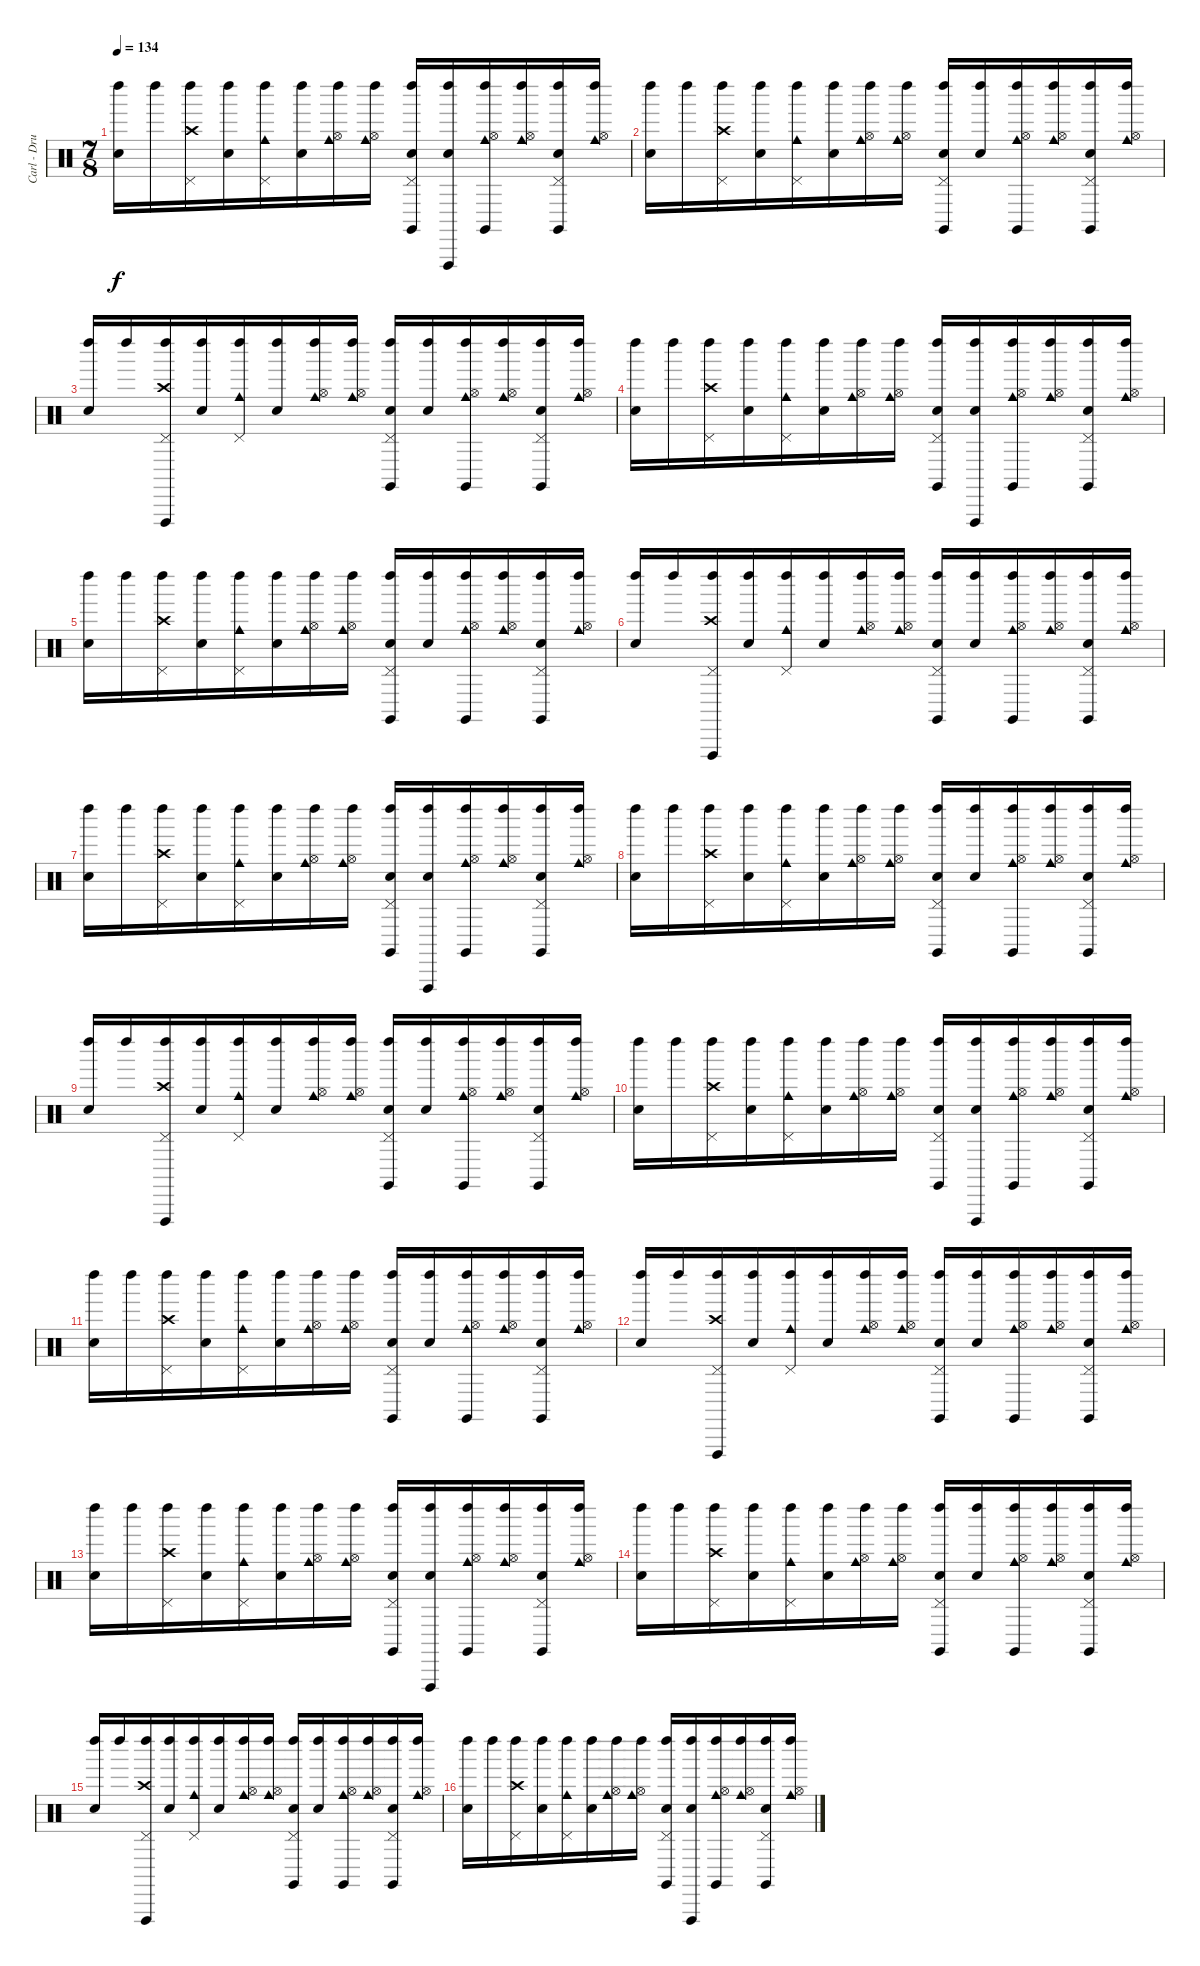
\track ("Carl - Drums" "Carl - Dru") {instrument percussion}
\staff {score}
\articulation defaults
\ts (7 8)
\tempo 134
\clef neutral
\ks c
("Left Maraca (hit)" "Electric Snare (hit)").16{dy f} "Left Maraca (hit)".16 ("Left Maraca (hit)" "Crash high (hit)" "Pedal Hi-Hat (hit)").16 ("Left Maraca (hit)" "Electric Snare (hit)").16 ("Left Maraca (hit)" "Pedal Hi-Hat (hit)" "Cowbell medium (hit)").16 ("Left Maraca (hit)" "Electric Snare (hit)").16 ("Left Maraca (hit)" "Hi-Hat (open)" "Cowbell medium (hit)").16 ("Left Maraca (hit)" "Hi-Hat (open)" "Cowbell medium (hit)").16 ("Left Maraca (hit)" "Claves (hit)" "Electric Snare (hit)" "Pedal Hi-Hat (hit)").16 ("Left Maraca (hit)" "Vibraslap (hit)" "Electric Snare (hit)").16 ("Left Maraca (hit)" "Claves (hit)" "Hi-Hat (open)" "Cowbell medium (hit)").16 ("Left Maraca (hit)" "Hi-Hat (open)" "Cowbell medium (hit)").16 ("Left Maraca (hit)" "Claves (hit)" "Electric Snare (hit)" "Pedal Hi-Hat (hit)").16 ("Left Maraca (hit)" "Hi-Hat (open)" "Cowbell medium (hit)").16 |
("Left Maraca (hit)" "Electric Snare (hit)").16 "Left Maraca (hit)".16 ("Left Maraca (hit)" "Crash high (hit)" "Pedal Hi-Hat (hit)").16 ("Left Maraca (hit)" "Electric Snare (hit)").16 ("Left Maraca (hit)" "Pedal Hi-Hat (hit)" "Cowbell medium (hit)").16 ("Left Maraca (hit)" "Electric Snare (hit)").16 ("Left Maraca (hit)" "Hi-Hat (open)" "Cowbell medium (hit)").16 ("Left Maraca (hit)" "Hi-Hat (open)" "Cowbell medium (hit)").16 ("Left Maraca (hit)" "Claves (hit)" "Electric Snare (hit)" "Pedal Hi-Hat (hit)").16 ("Left Maraca (hit)" "Electric Snare (hit)").16 ("Left Maraca (hit)" "Claves (hit)" "Hi-Hat (open)" "Cowbell medium (hit)").16 ("Left Maraca (hit)" "Hi-Hat (open)" "Cowbell medium (hit)").16 ("Left Maraca (hit)" "Claves (hit)" "Electric Snare (hit)" "Pedal Hi-Hat (hit)").16 ("Left Maraca (hit)" "Hi-Hat (open)" "Cowbell medium (hit)").16 |
("Left Maraca (hit)" "Electric Snare (hit)").16 "Left Maraca (hit)".16 ("Left Maraca (hit)" "Vibraslap (hit)" "Crash high (hit)" "Pedal Hi-Hat (hit)").16 ("Left Maraca (hit)" "Electric Snare (hit)").16 ("Left Maraca (hit)" "Pedal Hi-Hat (hit)" "Cowbell medium (hit)").16 ("Left Maraca (hit)" "Electric Snare (hit)").16 ("Left Maraca (hit)" "Hi-Hat (open)" "Cowbell medium (hit)").16 ("Left Maraca (hit)" "Hi-Hat (open)" "Cowbell medium (hit)").16 ("Left Maraca (hit)" "Claves (hit)" "Electric Snare (hit)" "Pedal Hi-Hat (hit)").16 ("Left Maraca (hit)" "Electric Snare (hit)").16 ("Left Maraca (hit)" "Claves (hit)" "Hi-Hat (open)" "Cowbell medium (hit)").16 ("Left Maraca (hit)" "Hi-Hat (open)" "Cowbell medium (hit)").16 ("Left Maraca (hit)" "Claves (hit)" "Electric Snare (hit)" "Pedal Hi-Hat (hit)").16 ("Left Maraca (hit)" "Hi-Hat (open)" "Cowbell medium (hit)").16 |
("Left Maraca (hit)" "Electric Snare (hit)").16 "Left Maraca (hit)".16 ("Left Maraca (hit)" "Crash high (hit)" "Pedal Hi-Hat (hit)").16 ("Left Maraca (hit)" "Electric Snare (hit)").16 ("Left Maraca (hit)" "Pedal Hi-Hat (hit)" "Cowbell medium (hit)").16 ("Left Maraca (hit)" "Electric Snare (hit)").16 ("Left Maraca (hit)" "Hi-Hat (open)" "Cowbell medium (hit)").16 ("Left Maraca (hit)" "Hi-Hat (open)" "Cowbell medium (hit)").16 ("Left Maraca (hit)" "Claves (hit)" "Electric Snare (hit)" "Pedal Hi-Hat (hit)").16 ("Left Maraca (hit)" "Vibraslap (hit)" "Electric Snare (hit)").16 ("Left Maraca (hit)" "Claves (hit)" "Hi-Hat (open)" "Cowbell medium (hit)").16 ("Left Maraca (hit)" "Hi-Hat (open)" "Cowbell medium (hit)").16 ("Left Maraca (hit)" "Claves (hit)" "Electric Snare (hit)" "Pedal Hi-Hat (hit)").16 ("Left Maraca (hit)" "Hi-Hat (open)" "Cowbell medium (hit)").16 |
("Left Maraca (hit)" "Electric Snare (hit)").16 "Left Maraca (hit)".16 ("Left Maraca (hit)" "Crash high (hit)" "Pedal Hi-Hat (hit)").16 ("Left Maraca (hit)" "Electric Snare (hit)").16 ("Left Maraca (hit)" "Pedal Hi-Hat (hit)" "Cowbell medium (hit)").16 ("Left Maraca (hit)" "Electric Snare (hit)").16 ("Left Maraca (hit)" "Hi-Hat (open)" "Cowbell medium (hit)").16 ("Left Maraca (hit)" "Hi-Hat (open)" "Cowbell medium (hit)").16 ("Left Maraca (hit)" "Claves (hit)" "Electric Snare (hit)" "Pedal Hi-Hat (hit)").16 ("Left Maraca (hit)" "Electric Snare (hit)").16 ("Left Maraca (hit)" "Claves (hit)" "Hi-Hat (open)" "Cowbell medium (hit)").16 ("Left Maraca (hit)" "Hi-Hat (open)" "Cowbell medium (hit)").16 ("Left Maraca (hit)" "Claves (hit)" "Electric Snare (hit)" "Pedal Hi-Hat (hit)").16 ("Left Maraca (hit)" "Hi-Hat (open)" "Cowbell medium (hit)").16 |
("Left Maraca (hit)" "Electric Snare (hit)").16 "Left Maraca (hit)".16 ("Left Maraca (hit)" "Vibraslap (hit)" "Crash high (hit)" "Pedal Hi-Hat (hit)").16 ("Left Maraca (hit)" "Electric Snare (hit)").16 ("Left Maraca (hit)" "Pedal Hi-Hat (hit)" "Cowbell medium (hit)").16 ("Left Maraca (hit)" "Electric Snare (hit)").16 ("Left Maraca (hit)" "Hi-Hat (open)" "Cowbell medium (hit)").16 ("Left Maraca (hit)" "Hi-Hat (open)" "Cowbell medium (hit)").16 ("Left Maraca (hit)" "Claves (hit)" "Electric Snare (hit)" "Pedal Hi-Hat (hit)").16 ("Left Maraca (hit)" "Electric Snare (hit)").16 ("Left Maraca (hit)" "Claves (hit)" "Hi-Hat (open)" "Cowbell medium (hit)").16 ("Left Maraca (hit)" "Hi-Hat (open)" "Cowbell medium (hit)").16 ("Left Maraca (hit)" "Claves (hit)" "Electric Snare (hit)" "Pedal Hi-Hat (hit)").16 ("Left Maraca (hit)" "Hi-Hat (open)" "Cowbell medium (hit)").16 |
("Left Maraca (hit)" "Electric Snare (hit)").16 "Left Maraca (hit)".16 ("Left Maraca (hit)" "Crash high (hit)" "Pedal Hi-Hat (hit)").16 ("Left Maraca (hit)" "Electric Snare (hit)").16 ("Left Maraca (hit)" "Pedal Hi-Hat (hit)" "Cowbell medium (hit)").16 ("Left Maraca (hit)" "Electric Snare (hit)").16 ("Left Maraca (hit)" "Hi-Hat (open)" "Cowbell medium (hit)").16 ("Left Maraca (hit)" "Hi-Hat (open)" "Cowbell medium (hit)").16 ("Left Maraca (hit)" "Claves (hit)" "Electric Snare (hit)" "Pedal Hi-Hat (hit)").16 ("Left Maraca (hit)" "Vibraslap (hit)" "Electric Snare (hit)").16 ("Left Maraca (hit)" "Claves (hit)" "Hi-Hat (open)" "Cowbell medium (hit)").16 ("Left Maraca (hit)" "Hi-Hat (open)" "Cowbell medium (hit)").16 ("Left Maraca (hit)" "Claves (hit)" "Electric Snare (hit)" "Pedal Hi-Hat (hit)").16 ("Left Maraca (hit)" "Hi-Hat (open)" "Cowbell medium (hit)").16 |
("Left Maraca (hit)" "Electric Snare (hit)").16 "Left Maraca (hit)".16 ("Left Maraca (hit)" "Crash high (hit)" "Pedal Hi-Hat (hit)").16 ("Left Maraca (hit)" "Electric Snare (hit)").16 ("Left Maraca (hit)" "Pedal Hi-Hat (hit)" "Cowbell medium (hit)").16 ("Left Maraca (hit)" "Electric Snare (hit)").16 ("Left Maraca (hit)" "Hi-Hat (open)" "Cowbell medium (hit)").16 ("Left Maraca (hit)" "Hi-Hat (open)" "Cowbell medium (hit)").16 ("Left Maraca (hit)" "Claves (hit)" "Electric Snare (hit)" "Pedal Hi-Hat (hit)").16 ("Left Maraca (hit)" "Electric Snare (hit)").16 ("Left Maraca (hit)" "Claves (hit)" "Hi-Hat (open)" "Cowbell medium (hit)").16 ("Left Maraca (hit)" "Hi-Hat (open)" "Cowbell medium (hit)").16 ("Left Maraca (hit)" "Claves (hit)" "Electric Snare (hit)" "Pedal Hi-Hat (hit)").16 ("Left Maraca (hit)" "Hi-Hat (open)" "Cowbell medium (hit)").16 |
("Left Maraca (hit)" "Electric Snare (hit)").16 "Left Maraca (hit)".16 ("Left Maraca (hit)" "Vibraslap (hit)" "Crash high (hit)" "Pedal Hi-Hat (hit)").16 ("Left Maraca (hit)" "Electric Snare (hit)").16 ("Left Maraca (hit)" "Pedal Hi-Hat (hit)" "Cowbell medium (hit)").16 ("Left Maraca (hit)" "Electric Snare (hit)").16 ("Left Maraca (hit)" "Hi-Hat (open)" "Cowbell medium (hit)").16 ("Left Maraca (hit)" "Hi-Hat (open)" "Cowbell medium (hit)").16 ("Left Maraca (hit)" "Claves (hit)" "Electric Snare (hit)" "Pedal Hi-Hat (hit)").16 ("Left Maraca (hit)" "Electric Snare (hit)").16 ("Left Maraca (hit)" "Claves (hit)" "Hi-Hat (open)" "Cowbell medium (hit)").16 ("Left Maraca (hit)" "Hi-Hat (open)" "Cowbell medium (hit)").16 ("Left Maraca (hit)" "Claves (hit)" "Electric Snare (hit)" "Pedal Hi-Hat (hit)").16 ("Left Maraca (hit)" "Hi-Hat (open)" "Cowbell medium (hit)").16 |
("Left Maraca (hit)" "Electric Snare (hit)").16 "Left Maraca (hit)".16 ("Left Maraca (hit)" "Crash high (hit)" "Pedal Hi-Hat (hit)").16 ("Left Maraca (hit)" "Electric Snare (hit)").16 ("Left Maraca (hit)" "Pedal Hi-Hat (hit)" "Cowbell medium (hit)").16 ("Left Maraca (hit)" "Electric Snare (hit)").16 ("Left Maraca (hit)" "Hi-Hat (open)" "Cowbell medium (hit)").16 ("Left Maraca (hit)" "Hi-Hat (open)" "Cowbell medium (hit)").16 ("Left Maraca (hit)" "Claves (hit)" "Electric Snare (hit)" "Pedal Hi-Hat (hit)").16 ("Left Maraca (hit)" "Vibraslap (hit)" "Electric Snare (hit)").16 ("Left Maraca (hit)" "Claves (hit)" "Hi-Hat (open)" "Cowbell medium (hit)").16 ("Left Maraca (hit)" "Hi-Hat (open)" "Cowbell medium (hit)").16 ("Left Maraca (hit)" "Claves (hit)" "Electric Snare (hit)" "Pedal Hi-Hat (hit)").16 ("Left Maraca (hit)" "Hi-Hat (open)" "Cowbell medium (hit)").16 |
("Left Maraca (hit)" "Electric Snare (hit)").16 "Left Maraca (hit)".16 ("Left Maraca (hit)" "Crash high (hit)" "Pedal Hi-Hat (hit)").16 ("Left Maraca (hit)" "Electric Snare (hit)").16 ("Left Maraca (hit)" "Pedal Hi-Hat (hit)" "Cowbell medium (hit)").16 ("Left Maraca (hit)" "Electric Snare (hit)").16 ("Left Maraca (hit)" "Hi-Hat (open)" "Cowbell medium (hit)").16 ("Left Maraca (hit)" "Hi-Hat (open)" "Cowbell medium (hit)").16 ("Left Maraca (hit)" "Claves (hit)" "Electric Snare (hit)" "Pedal Hi-Hat (hit)").16 ("Left Maraca (hit)" "Electric Snare (hit)").16 ("Left Maraca (hit)" "Claves (hit)" "Hi-Hat (open)" "Cowbell medium (hit)").16 ("Left Maraca (hit)" "Hi-Hat (open)" "Cowbell medium (hit)").16 ("Left Maraca (hit)" "Claves (hit)" "Electric Snare (hit)" "Pedal Hi-Hat (hit)").16 ("Left Maraca (hit)" "Hi-Hat (open)" "Cowbell medium (hit)").16 |
("Left Maraca (hit)" "Electric Snare (hit)").16 "Left Maraca (hit)".16 ("Left Maraca (hit)" "Vibraslap (hit)" "Crash high (hit)" "Pedal Hi-Hat (hit)").16 ("Left Maraca (hit)" "Electric Snare (hit)").16 ("Left Maraca (hit)" "Pedal Hi-Hat (hit)" "Cowbell medium (hit)").16 ("Left Maraca (hit)" "Electric Snare (hit)").16 ("Left Maraca (hit)" "Hi-Hat (open)" "Cowbell medium (hit)").16 ("Left Maraca (hit)" "Hi-Hat (open)" "Cowbell medium (hit)").16 ("Left Maraca (hit)" "Claves (hit)" "Electric Snare (hit)" "Pedal Hi-Hat (hit)").16 ("Left Maraca (hit)" "Electric Snare (hit)").16 ("Left Maraca (hit)" "Claves (hit)" "Hi-Hat (open)" "Cowbell medium (hit)").16 ("Left Maraca (hit)" "Hi-Hat (open)" "Cowbell medium (hit)").16 ("Left Maraca (hit)" "Claves (hit)" "Electric Snare (hit)" "Pedal Hi-Hat (hit)").16 ("Left Maraca (hit)" "Hi-Hat (open)" "Cowbell medium (hit)").16 |
("Left Maraca (hit)" "Electric Snare (hit)").16 "Left Maraca (hit)".16 ("Left Maraca (hit)" "Crash high (hit)" "Pedal Hi-Hat (hit)").16 ("Left Maraca (hit)" "Electric Snare (hit)").16 ("Left Maraca (hit)" "Pedal Hi-Hat (hit)" "Cowbell medium (hit)").16 ("Left Maraca (hit)" "Electric Snare (hit)").16 ("Left Maraca (hit)" "Hi-Hat (open)" "Cowbell medium (hit)").16 ("Left Maraca (hit)" "Hi-Hat (open)" "Cowbell medium (hit)").16 ("Left Maraca (hit)" "Claves (hit)" "Electric Snare (hit)" "Pedal Hi-Hat (hit)").16 ("Left Maraca (hit)" "Vibraslap (hit)" "Electric Snare (hit)").16 ("Left Maraca (hit)" "Claves (hit)" "Hi-Hat (open)" "Cowbell medium (hit)").16 ("Left Maraca (hit)" "Hi-Hat (open)" "Cowbell medium (hit)").16 ("Left Maraca (hit)" "Claves (hit)" "Electric Snare (hit)" "Pedal Hi-Hat (hit)").16 ("Left Maraca (hit)" "Hi-Hat (open)" "Cowbell medium (hit)").16 |
("Left Maraca (hit)" "Electric Snare (hit)").16 "Left Maraca (hit)".16 ("Left Maraca (hit)" "Crash high (hit)" "Pedal Hi-Hat (hit)").16 ("Left Maraca (hit)" "Electric Snare (hit)").16 ("Left Maraca (hit)" "Pedal Hi-Hat (hit)" "Cowbell medium (hit)").16 ("Left Maraca (hit)" "Electric Snare (hit)").16 ("Left Maraca (hit)" "Hi-Hat (open)" "Cowbell medium (hit)").16 ("Left Maraca (hit)" "Hi-Hat (open)" "Cowbell medium (hit)").16 ("Left Maraca (hit)" "Claves (hit)" "Electric Snare (hit)" "Pedal Hi-Hat (hit)").16 ("Left Maraca (hit)" "Electric Snare (hit)").16 ("Left Maraca (hit)" "Claves (hit)" "Hi-Hat (open)" "Cowbell medium (hit)").16 ("Left Maraca (hit)" "Hi-Hat (open)" "Cowbell medium (hit)").16 ("Left Maraca (hit)" "Claves (hit)" "Electric Snare (hit)" "Pedal Hi-Hat (hit)").16 ("Left Maraca (hit)" "Hi-Hat (open)" "Cowbell medium (hit)").16 |
("Left Maraca (hit)" "Electric Snare (hit)").16 "Left Maraca (hit)".16 ("Left Maraca (hit)" "Vibraslap (hit)" "Crash high (hit)" "Pedal Hi-Hat (hit)").16 ("Left Maraca (hit)" "Electric Snare (hit)").16 ("Left Maraca (hit)" "Pedal Hi-Hat (hit)" "Cowbell medium (hit)").16 ("Left Maraca (hit)" "Electric Snare (hit)").16 ("Left Maraca (hit)" "Hi-Hat (open)" "Cowbell medium (hit)").16 ("Left Maraca (hit)" "Hi-Hat (open)" "Cowbell medium (hit)").16 ("Left Maraca (hit)" "Claves (hit)" "Electric Snare (hit)" "Pedal Hi-Hat (hit)").16 ("Left Maraca (hit)" "Electric Snare (hit)").16 ("Left Maraca (hit)" "Claves (hit)" "Hi-Hat (open)" "Cowbell medium (hit)").16 ("Left Maraca (hit)" "Hi-Hat (open)" "Cowbell medium (hit)").16 ("Left Maraca (hit)" "Claves (hit)" "Electric Snare (hit)" "Pedal Hi-Hat (hit)").16 ("Left Maraca (hit)" "Hi-Hat (open)" "Cowbell medium (hit)").16 |
("Left Maraca (hit)" "Electric Snare (hit)").16 "Left Maraca (hit)".16 ("Left Maraca (hit)" "Crash high (hit)" "Pedal Hi-Hat (hit)").16 ("Left Maraca (hit)" "Electric Snare (hit)").16 ("Left Maraca (hit)" "Pedal Hi-Hat (hit)" "Cowbell medium (hit)").16 ("Left Maraca (hit)" "Electric Snare (hit)").16 ("Left Maraca (hit)" "Hi-Hat (open)" "Cowbell medium (hit)").16 ("Left Maraca (hit)" "Hi-Hat (open)" "Cowbell medium (hit)").16 ("Left Maraca (hit)" "Claves (hit)" "Electric Snare (hit)" "Pedal Hi-Hat (hit)").16 ("Left Maraca (hit)" "Vibraslap (hit)" "Electric Snare (hit)").16 ("Left Maraca (hit)" "Claves (hit)" "Hi-Hat (open)" "Cowbell medium (hit)").16 ("Left Maraca (hit)" "Hi-Hat (open)" "Cowbell medium (hit)").16 ("Left Maraca (hit)" "Claves (hit)" "Electric Snare (hit)" "Pedal Hi-Hat (hit)").16 ("Left Maraca (hit)" "Hi-Hat (open)" "Cowbell medium (hit)").16
